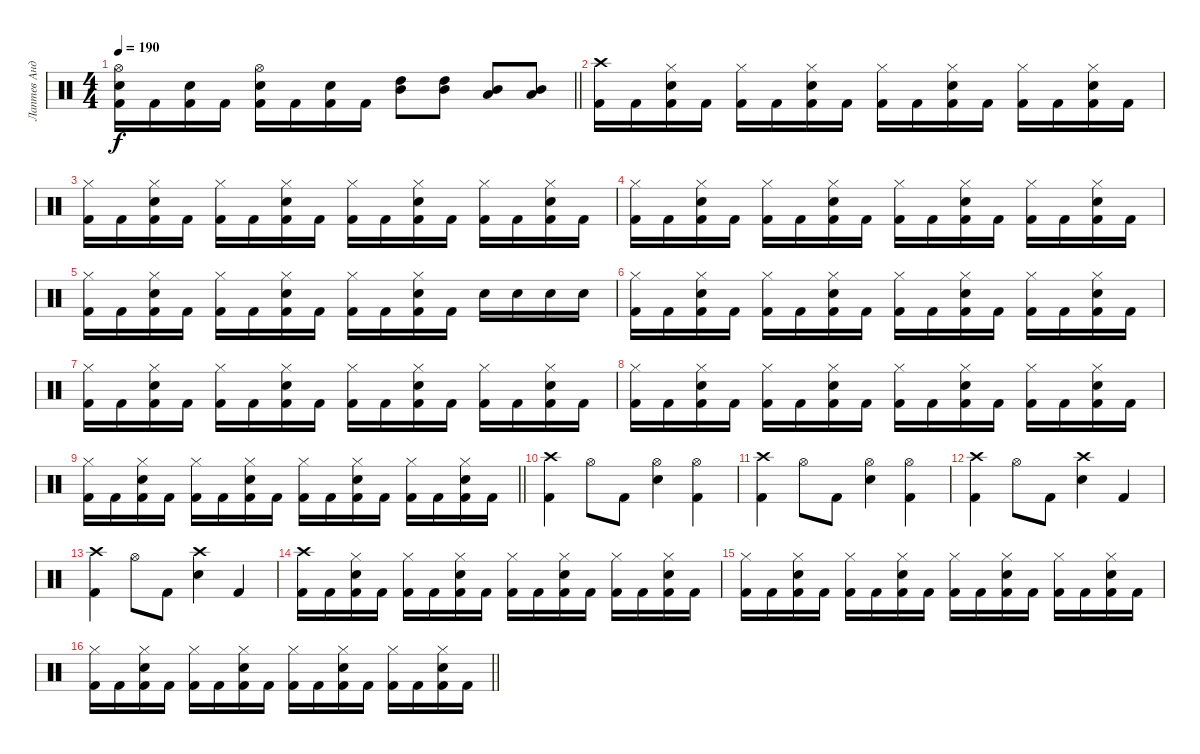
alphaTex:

\track ("Лаптев Андрей" "Лаптев Анд") {instrument percussion}
\staff {score}
\articulation defaults
\ts (4 4)
\tempo 190
\clef neutral
\barLineRight lightlight
\ks c
("Hi-Hat (open)" "Electric Snare (hit)" "Kick (hit) 2").16{dy f} "Kick (hit) 2".16 ("Electric Snare (hit)" "Kick (hit) 2").16 "Kick (hit) 2".16 ("Electric Snare (hit)" "Hi-Hat (open)" "Kick (hit) 2").16 "Kick (hit) 2".16 ("Electric Snare (hit)" "Kick (hit) 2").16 "Kick (hit) 2".16 ("Mid Tom (hit)" "High Tom (hit)").8 ("Mid Tom (hit)" "High Tom (hit)").8 ("Low Tom (hit)" "Mid Tom (hit)").8 ("Low Tom (hit)" "Mid Tom (hit)").8 |
("Crash high (hit)" "Kick (hit) 2").16 "Kick (hit) 2".16 ("Electric Snare (hit)" "Hi-Hat (closed)" "Kick (hit) 2").16 "Kick (hit) 2".16 ("Hi-Hat (closed)" "Kick (hit) 2").16 "Kick (hit) 2".16 ("Electric Snare (hit)" "Hi-Hat (closed)" "Kick (hit) 2").16 "Kick (hit) 2".16 ("Hi-Hat (closed)" "Kick (hit) 2").16 "Kick (hit) 2".16 ("Hi-Hat (closed)" "Electric Snare (hit)" "Kick (hit) 2").16 "Kick (hit) 2".16 ("Hi-Hat (closed)" "Kick (hit) 2").16 "Kick (hit) 2".16 ("Electric Snare (hit)" "Hi-Hat (closed)" "Kick (hit) 2").16 "Kick (hit) 2".16 |
("Hi-Hat (closed)" "Kick (hit) 2").16 "Kick (hit) 2".16 ("Hi-Hat (closed)" "Electric Snare (hit)" "Kick (hit) 2").16 "Kick (hit) 2".16 ("Hi-Hat (closed)" "Kick (hit) 2").16 "Kick (hit) 2".16 ("Hi-Hat (closed)" "Electric Snare (hit)" "Kick (hit) 2").16 "Kick (hit) 2".16 ("Hi-Hat (closed)" "Kick (hit) 2").16 "Kick (hit) 2".16 ("Hi-Hat (closed)" "Electric Snare (hit)" "Kick (hit) 2").16 "Kick (hit) 2".16 ("Hi-Hat (closed)" "Kick (hit) 2").16 "Kick (hit) 2".16 ("Hi-Hat (closed)" "Electric Snare (hit)" "Kick (hit) 2").16 "Kick (hit) 2".16 |
("Hi-Hat (closed)" "Kick (hit) 2").16 "Kick (hit) 2".16 ("Hi-Hat (closed)" "Electric Snare (hit)" "Kick (hit) 2").16 "Kick (hit) 2".16 ("Hi-Hat (closed)" "Kick (hit) 2").16 "Kick (hit) 2".16 ("Hi-Hat (closed)" "Electric Snare (hit)" "Kick (hit) 2").16 "Kick (hit) 2".16 ("Hi-Hat (closed)" "Kick (hit) 2").16 "Kick (hit) 2".16 ("Hi-Hat (closed)" "Electric Snare (hit)" "Kick (hit) 2").16 "Kick (hit) 2".16 ("Hi-Hat (closed)" "Kick (hit) 2").16 "Kick (hit) 2".16 ("Hi-Hat (closed)" "Electric Snare (hit)" "Kick (hit) 2").16 "Kick (hit) 2".16 |
("Hi-Hat (closed)" "Kick (hit) 2").16 "Kick (hit) 2".16 ("Hi-Hat (closed)" "Electric Snare (hit)" "Kick (hit) 2").16 "Kick (hit) 2".16 ("Hi-Hat (closed)" "Kick (hit) 2").16 "Kick (hit) 2".16 ("Hi-Hat (closed)" "Electric Snare (hit)" "Kick (hit) 2").16 "Kick (hit) 2".16 ("Hi-Hat (closed)" "Kick (hit) 2").16 "Kick (hit) 2".16 ("Hi-Hat (closed)" "Electric Snare (hit)" "Kick (hit) 2").16 "Kick (hit) 2".16 "Electric Snare (hit)".16 "Electric Snare (hit)".16 "Electric Snare (hit)".16 "Electric Snare (hit)".16 |
("Hi-Hat (closed)" "Kick (hit) 2").16 "Kick (hit) 2".16 ("Hi-Hat (closed)" "Electric Snare (hit)" "Kick (hit) 2").16 "Kick (hit) 2".16 ("Hi-Hat (closed)" "Kick (hit) 2").16 "Kick (hit) 2".16 ("Hi-Hat (closed)" "Electric Snare (hit)" "Kick (hit) 2").16 "Kick (hit) 2".16 ("Hi-Hat (closed)" "Kick (hit) 2").16 "Kick (hit) 2".16 ("Hi-Hat (closed)" "Electric Snare (hit)" "Kick (hit) 2").16 "Kick (hit) 2".16 ("Hi-Hat (closed)" "Kick (hit) 2").16 "Kick (hit) 2".16 ("Hi-Hat (closed)" "Electric Snare (hit)" "Kick (hit) 2").16 "Kick (hit) 2".16 |
("Hi-Hat (closed)" "Kick (hit) 2").16 "Kick (hit) 2".16 ("Hi-Hat (closed)" "Electric Snare (hit)" "Kick (hit) 2").16 "Kick (hit) 2".16 ("Hi-Hat (closed)" "Kick (hit) 2").16 "Kick (hit) 2".16 ("Hi-Hat (closed)" "Electric Snare (hit)" "Kick (hit) 2").16 "Kick (hit) 2".16 ("Hi-Hat (closed)" "Kick (hit) 2").16 "Kick (hit) 2".16 ("Hi-Hat (closed)" "Electric Snare (hit)" "Kick (hit) 2").16 "Kick (hit) 2".16 ("Hi-Hat (closed)" "Kick (hit) 2").16 "Kick (hit) 2".16 ("Hi-Hat (closed)" "Electric Snare (hit)" "Kick (hit) 2").16 "Kick (hit) 2".16 |
("Hi-Hat (closed)" "Kick (hit) 2").16 "Kick (hit) 2".16 ("Hi-Hat (closed)" "Electric Snare (hit)" "Kick (hit) 2").16 "Kick (hit) 2".16 ("Hi-Hat (closed)" "Kick (hit) 2").16 "Kick (hit) 2".16 ("Hi-Hat (closed)" "Electric Snare (hit)" "Kick (hit) 2").16 "Kick (hit) 2".16 ("Hi-Hat (closed)" "Kick (hit) 2").16 "Kick (hit) 2".16 ("Hi-Hat (closed)" "Electric Snare (hit)" "Kick (hit) 2").16 "Kick (hit) 2".16 ("Hi-Hat (closed)" "Kick (hit) 2").16 "Kick (hit) 2".16 ("Hi-Hat (closed)" "Electric Snare (hit)" "Kick (hit) 2").16 "Kick (hit) 2".16 |
\barLineRight lightlight
("Hi-Hat (closed)" "Kick (hit) 2").16 "Kick (hit) 2".16 ("Hi-Hat (closed)" "Electric Snare (hit)" "Kick (hit) 2").16 "Kick (hit) 2".16 ("Hi-Hat (closed)" "Kick (hit) 2").16 "Kick (hit) 2".16 ("Hi-Hat (closed)" "Electric Snare (hit)" "Kick (hit) 2").16 "Kick (hit) 2".16 ("Hi-Hat (closed)" "Kick (hit) 2").16 "Kick (hit) 2".16 ("Hi-Hat (closed)" "Electric Snare (hit)" "Kick (hit) 2").16 "Kick (hit) 2".16 ("Hi-Hat (closed)" "Kick (hit) 2").16 "Kick (hit) 2".16 ("Hi-Hat (closed)" "Electric Snare (hit)" "Kick (hit) 2").16 "Kick (hit) 2".16 |
("Crash high (hit)" "Kick (hit) 2").4 "Hi-Hat (open)".8 "Kick (hit) 2".8 ("Snare (hit) 2" "Hi-Hat (open)").4 ("Hi-Hat (open)" "Kick (hit) 2").4 |
("Crash high (hit)" "Kick (hit) 2").4 "Hi-Hat (open)".8 "Kick (hit) 2".8 ("Snare (hit) 2" "Hi-Hat (open)").4 ("Hi-Hat (open)" "Kick (hit) 2").4 |
("Crash high (hit)" "Kick (hit) 2").4 "Hi-Hat (open)".8 "Kick (hit) 2".8 ("Snare (hit) 2" "Crash high (hit)").4 "Kick (hit) 2".4 |
("Crash high (hit)" "Kick (hit) 2").4 "Hi-Hat (open)".8 "Kick (hit) 2".8 ("Snare (hit) 2" "Crash high (hit)").4 "Kick (hit) 2".4 |
("Crash high (hit)" "Kick (hit) 2").16 "Kick (hit) 2".16 ("Hi-Hat (closed)" "Electric Snare (hit)" "Kick (hit) 2").16 "Kick (hit) 2".16 ("Hi-Hat (closed)" "Kick (hit) 2").16 "Kick (hit) 2".16 ("Electric Snare (hit)" "Hi-Hat (closed)" "Kick (hit) 2").16 "Kick (hit) 2".16 ("Hi-Hat (closed)" "Kick (hit) 2").16 "Kick (hit) 2".16 ("Electric Snare (hit)" "Hi-Hat (closed)" "Kick (hit) 2").16 "Kick (hit) 2".16 ("Hi-Hat (closed)" "Kick (hit) 2").16 "Kick (hit) 2".16 ("Electric Snare (hit)" "Hi-Hat (closed)" "Kick (hit) 2").16 "Kick (hit) 2".16 |
("Hi-Hat (closed)" "Kick (hit) 2").16 "Kick (hit) 2".16 ("Electric Snare (hit)" "Hi-Hat (closed)" "Kick (hit) 2").16 "Kick (hit) 2".16 ("Hi-Hat (closed)" "Kick (hit) 2").16 "Kick (hit) 2".16 ("Electric Snare (hit)" "Hi-Hat (closed)" "Kick (hit) 2").16 "Kick (hit) 2".16 ("Hi-Hat (closed)" "Kick (hit) 2").16 "Kick (hit) 2".16 ("Electric Snare (hit)" "Hi-Hat (closed)" "Kick (hit) 2").16 "Kick (hit) 2".16 ("Hi-Hat (closed)" "Kick (hit) 2").16 "Kick (hit) 2".16 ("Electric Snare (hit)" "Hi-Hat (closed)" "Kick (hit) 2").16 "Kick (hit) 2".16 |
\barLineRight lightlight
("Hi-Hat (closed)" "Kick (hit) 2").16 "Kick (hit) 2".16 ("Electric Snare (hit)" "Hi-Hat (closed)" "Kick (hit) 2").16 "Kick (hit) 2".16 ("Hi-Hat (closed)" "Kick (hit) 2").16 "Kick (hit) 2".16 ("Electric Snare (hit)" "Hi-Hat (closed)" "Kick (hit) 2").16 "Kick (hit) 2".16 ("Hi-Hat (closed)" "Kick (hit) 2").16 "Kick (hit) 2".16 ("Electric Snare (hit)" "Hi-Hat (closed)" "Kick (hit) 2").16 "Kick (hit) 2".16 ("Hi-Hat (closed)" "Kick (hit) 2").16 "Kick (hit) 2".16 ("Electric Snare (hit)" "Hi-Hat (closed)" "Kick (hit) 2").16 "Kick (hit) 2".16
